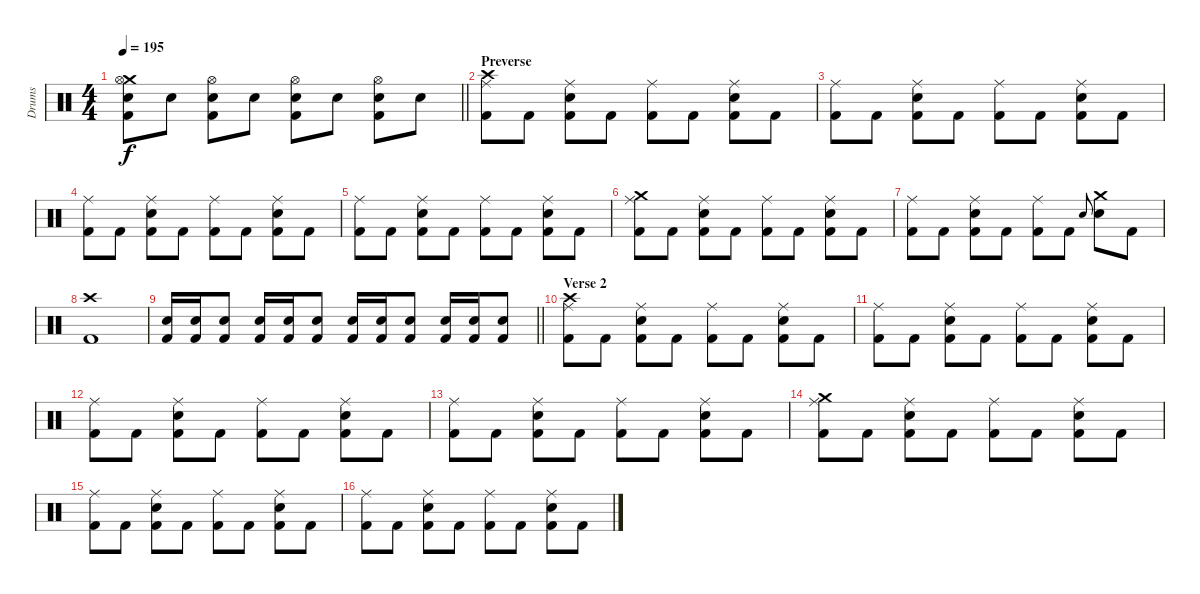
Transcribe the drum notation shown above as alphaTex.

\track ("Drums" "Drums") {instrument percussion}
\staff {score}
\articulation defaults
\ts (4 4)
\tempo 195
\clef neutral
\barLineRight lightlight
\ks c
("Crash medium (hit)" "Hi-Hat (open)" "Snare (hit) 2" "Kick (hit) 2").8{dy f} "Snare (hit) 2".8 ("Hi-Hat (open)" "Snare (hit) 2" "Kick (hit) 2").8 "Snare (hit) 2".8 ("Hi-Hat (open)" "Snare (hit) 2" "Kick (hit) 2").8 "Snare (hit) 2".8 ("Hi-Hat (open)" "Snare (hit) 2" "Kick (hit) 2").8 "Snare (hit) 2".8 |
\section ("" "Preverse")
("Crash high (hit)" "Ride (middle)" "Kick (hit) 2").8 "Kick (hit) 2".8 ("Ride (middle)" "Snare (hit) 2" "Kick (hit) 2").8 "Kick (hit) 2".8 ("Ride (middle)" "Kick (hit) 2").8 "Kick (hit) 2".8 ("Ride (middle)" "Snare (hit) 2" "Kick (hit) 2").8 "Kick (hit) 2".8 |
("Ride (middle)" "Kick (hit) 2").8 "Kick (hit) 2".8 ("Ride (middle)" "Snare (hit) 2" "Kick (hit) 2").8 "Kick (hit) 2".8 ("Ride (middle)" "Kick (hit) 2").8 "Kick (hit) 2".8 ("Ride (middle)" "Snare (hit) 2" "Kick (hit) 2").8 "Kick (hit) 2".8 |
("Ride (middle)" "Kick (hit) 2").8 "Kick (hit) 2".8 ("Ride (middle)" "Snare (hit) 2" "Kick (hit) 2").8 "Kick (hit) 2".8 ("Ride (middle)" "Kick (hit) 2").8 "Kick (hit) 2".8 ("Ride (middle)" "Snare (hit) 2" "Kick (hit) 2").8 "Kick (hit) 2".8 |
("Ride (middle)" "Kick (hit) 2").8 "Kick (hit) 2".8 ("Ride (middle)" "Snare (hit) 2" "Kick (hit) 2").8 "Kick (hit) 2".8 ("Ride (middle)" "Kick (hit) 2").8 "Kick (hit) 2".8 ("Ride (middle)" "Snare (hit) 2" "Kick (hit) 2").8 "Kick (hit) 2".8 |
("Crash medium (hit)" "Ride (middle)" "Kick (hit) 2").8 "Kick (hit) 2".8 ("Ride (middle)" "Snare (hit) 2" "Kick (hit) 2").8 "Kick (hit) 2".8 ("Ride (middle)" "Kick (hit) 2").8 "Kick (hit) 2".8 ("Ride (middle)" "Snare (hit) 2" "Kick (hit) 2").8 "Kick (hit) 2".8 |
("Ride (middle)" "Kick (hit) 2").8 "Kick (hit) 2".8 ("Ride (middle)" "Snare (hit) 2" "Kick (hit) 2").8 "Kick (hit) 2".8 ("Ride (middle)" "Kick (hit) 2").8 "Kick (hit) 2".8 "Snare (hit) 2".8{gr onbeat} ("Crash medium (hit)" "Snare (hit) 2").8 "Kick (hit) 2".8 |
("Crash high (hit)" "Kick (hit) 2").1 |
\barLineRight lightlight
("Snare (hit) 2" "Kick (hit) 2").16 ("Snare (hit) 2" "Kick (hit) 2").16 ("Snare (hit) 2" "Kick (hit) 2").8 ("Snare (hit) 2" "Kick (hit) 2").16 ("Snare (hit) 2" "Kick (hit) 2").16 ("Snare (hit) 2" "Kick (hit) 2").8 ("Snare (hit) 2" "Kick (hit) 2").16 ("Snare (hit) 2" "Kick (hit) 2").16 ("Snare (hit) 2" "Kick (hit) 2").8 ("Snare (hit) 2" "Kick (hit) 2").16 ("Snare (hit) 2" "Kick (hit) 2").16 ("Snare (hit) 2" "Kick (hit) 2").8 |
\section ("" "Verse 2")
("Crash high (hit)" "Ride (middle)" "Kick (hit) 2").8 "Kick (hit) 2".8 ("Ride (middle)" "Snare (hit) 2" "Kick (hit) 2").8 "Kick (hit) 2".8 ("Ride (middle)" "Kick (hit) 2").8 "Kick (hit) 2".8 ("Ride (middle)" "Snare (hit) 2" "Kick (hit) 2").8 "Kick (hit) 2".8 |
("Ride (middle)" "Kick (hit) 2").8 "Kick (hit) 2".8 ("Ride (middle)" "Snare (hit) 2" "Kick (hit) 2").8 "Kick (hit) 2".8 ("Ride (middle)" "Kick (hit) 2").8 "Kick (hit) 2".8 ("Ride (middle)" "Snare (hit) 2" "Kick (hit) 2").8 "Kick (hit) 2".8 |
("Ride (middle)" "Kick (hit) 2").8 "Kick (hit) 2".8 ("Ride (middle)" "Snare (hit) 2" "Kick (hit) 2").8 "Kick (hit) 2".8 ("Ride (middle)" "Kick (hit) 2").8 "Kick (hit) 2".8 ("Ride (middle)" "Snare (hit) 2" "Kick (hit) 2").8 "Kick (hit) 2".8 |
("Ride (middle)" "Kick (hit) 2").8 "Kick (hit) 2".8 ("Ride (middle)" "Snare (hit) 2" "Kick (hit) 2").8 "Kick (hit) 2".8 ("Ride (middle)" "Kick (hit) 2").8 "Kick (hit) 2".8 ("Ride (middle)" "Snare (hit) 2" "Kick (hit) 2").8 "Kick (hit) 2".8 |
("Crash medium (hit)" "Ride (middle)" "Kick (hit) 2").8 "Kick (hit) 2".8 ("Ride (middle)" "Snare (hit) 2" "Kick (hit) 2").8 "Kick (hit) 2".8 ("Ride (middle)" "Kick (hit) 2").8 "Kick (hit) 2".8 ("Ride (middle)" "Snare (hit) 2" "Kick (hit) 2").8 "Kick (hit) 2".8 |
("Ride (middle)" "Kick (hit) 2").8 "Kick (hit) 2".8 ("Ride (middle)" "Snare (hit) 2" "Kick (hit) 2").8 "Kick (hit) 2".8 ("Ride (middle)" "Kick (hit) 2").8 "Kick (hit) 2".8 ("Ride (middle)" "Snare (hit) 2" "Kick (hit) 2").8 "Kick (hit) 2".8 |
("Ride (middle)" "Kick (hit) 2").8 "Kick (hit) 2".8 ("Ride (middle)" "Snare (hit) 2" "Kick (hit) 2").8 "Kick (hit) 2".8 ("Ride (middle)" "Kick (hit) 2").8 "Kick (hit) 2".8 ("Ride (middle)" "Snare (hit) 2" "Kick (hit) 2").8 "Kick (hit) 2".8
